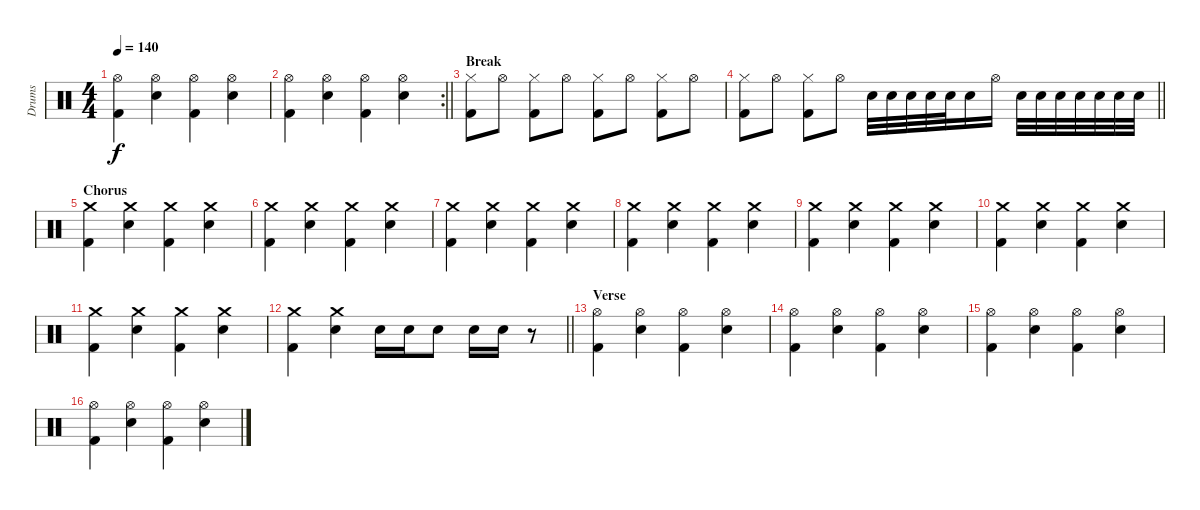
\track ("Drums" "Drums") {instrument percussion}
\staff {score}
\articulation defaults
\ts (4 4)
\tempo 140
\clef neutral
\ks c
("Hi-Hat (open)" "Kick (hit) 2").4{dy f} ("Hi-Hat (open)" "Snare (hit) 2").4 ("Hi-Hat (open)" "Kick (hit) 2").4 ("Hi-Hat (open)" "Snare (hit) 2").4 |
\rc 2
\barLineRight lightlight
("Hi-Hat (open)" "Kick (hit) 2").4 ("Hi-Hat (open)" "Snare (hit) 2").4 ("Hi-Hat (open)" "Kick (hit) 2").4 ("Hi-Hat (open)" "Snare (hit) 2").4 |
\section ("" "Break")
("Hi-Hat (closed)" "Kick (hit) 2").8 "Hi-Hat (open)".8 ("Hi-Hat (closed)" "Kick (hit) 2").8 "Hi-Hat (open)".8 ("Hi-Hat (closed)" "Kick (hit) 2").8 "Hi-Hat (open)".8 ("Hi-Hat (closed)" "Kick (hit) 2").8 "Hi-Hat (open)".8 |
\barLineRight lightlight
("Hi-Hat (closed)" "Kick (hit) 2").8 "Hi-Hat (open)".8 ("Hi-Hat (closed)" "Kick (hit) 2").8 "Hi-Hat (open)".8 "Snare (hit) 2".32 "Snare (hit) 2".32 "Snare (hit) 2".32 "Snare (hit) 2".32 "Snare (hit) 2".32 "Snare (hit) 2".16 "Hi-Hat (open)".16 "Snare (hit) 2".32 "Snare (hit) 2".32 "Snare (hit) 2".32 "Snare (hit) 2".32 "Snare (hit) 2".32 "Snare (hit) 2".32 "Snare (hit) 2".32 |
\section ("" "Chorus")
("Kick (hit) 2" "Crash medium (hit)").4 ("Crash medium (hit)" "Snare (hit) 2").4 ("Kick (hit) 2" "Crash medium (hit)").4 ("Crash medium (hit)" "Snare (hit) 2").4 |
("Kick (hit) 2" "Crash medium (hit)").4 ("Crash medium (hit)" "Snare (hit) 2").4 ("Kick (hit) 2" "Crash medium (hit)").4 ("Crash medium (hit)" "Snare (hit) 2").4 |
("Kick (hit) 2" "Crash medium (hit)").4 ("Crash medium (hit)" "Snare (hit) 2").4 ("Kick (hit) 2" "Crash medium (hit)").4 ("Crash medium (hit)" "Snare (hit) 2").4 |
("Kick (hit) 2" "Crash medium (hit)").4 ("Crash medium (hit)" "Snare (hit) 2").4 ("Kick (hit) 2" "Crash medium (hit)").4 ("Crash medium (hit)" "Snare (hit) 2").4 |
("Kick (hit) 2" "Crash medium (hit)").4 ("Crash medium (hit)" "Snare (hit) 2").4 ("Kick (hit) 2" "Crash medium (hit)").4 ("Crash medium (hit)" "Snare (hit) 2").4 |
("Kick (hit) 2" "Crash medium (hit)").4 ("Crash medium (hit)" "Snare (hit) 2").4 ("Kick (hit) 2" "Crash medium (hit)").4 ("Crash medium (hit)" "Snare (hit) 2").4 |
("Kick (hit) 2" "Crash medium (hit)").4 ("Crash medium (hit)" "Snare (hit) 2").4 ("Kick (hit) 2" "Crash medium (hit)").4 ("Crash medium (hit)" "Snare (hit) 2").4 |
\barLineRight lightlight
("Kick (hit) 2" "Crash medium (hit)").4 ("Crash medium (hit)" "Snare (hit) 2").4 "Snare (hit) 2".16 "Snare (hit) 2".16 "Snare (hit) 2".8 "Snare (hit) 2".16 "Snare (hit) 2".16 r.8 |
\section ("" "Verse")
("Hi-Hat (open)" "Kick (hit) 2").4 ("Hi-Hat (open)" "Snare (hit) 2").4 ("Hi-Hat (open)" "Kick (hit) 2").4 ("Hi-Hat (open)" "Snare (hit) 2").4 |
("Hi-Hat (open)" "Kick (hit) 2").4 ("Hi-Hat (open)" "Snare (hit) 2").4 ("Hi-Hat (open)" "Kick (hit) 2").4 ("Hi-Hat (open)" "Snare (hit) 2").4 |
("Hi-Hat (open)" "Kick (hit) 2").4 ("Hi-Hat (open)" "Snare (hit) 2").4 ("Hi-Hat (open)" "Kick (hit) 2").4 ("Hi-Hat (open)" "Snare (hit) 2").4 |
("Hi-Hat (open)" "Kick (hit) 2").4 ("Hi-Hat (open)" "Snare (hit) 2").4 ("Hi-Hat (open)" "Kick (hit) 2").4 ("Hi-Hat (open)" "Snare (hit) 2").4
